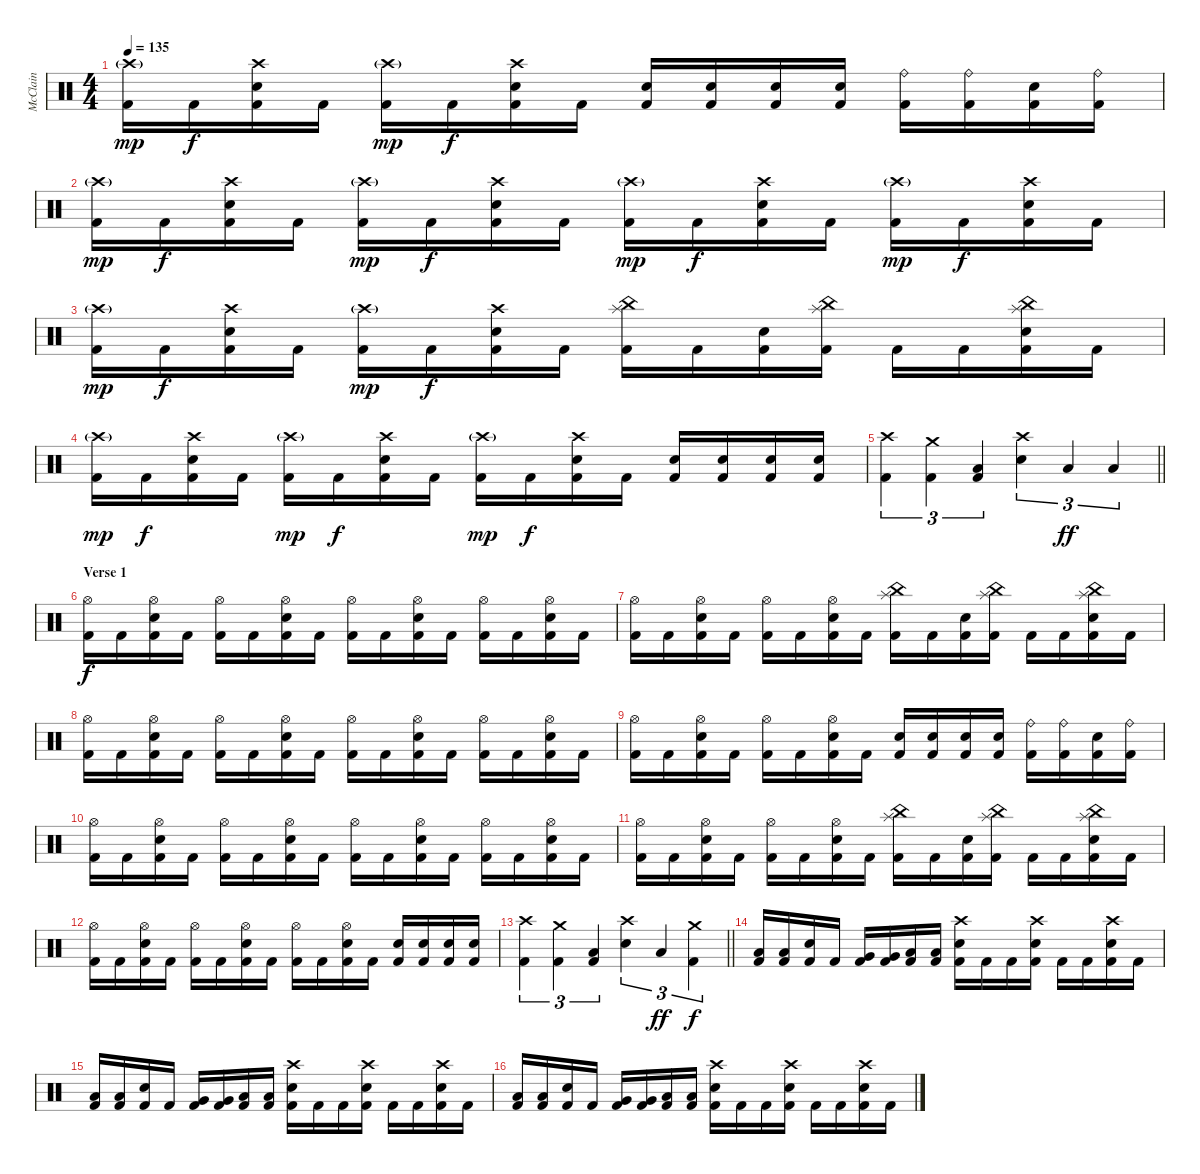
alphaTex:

\track ("McClain" "McClain") {instrument percussion}
\staff {score}
\articulation defaults
\ts (4 4)
\tempo 135
\clef neutral
\ks c
("Crash high (hit)"{g} "Kick (hit) 2").16{dy mp} "Kick (hit) 2".16{dy f} ("Crash high (hit)" "Electric Snare (hit)" "Kick (hit) 2").16 "Kick (hit) 2".16 ("Crash high (hit)"{g} "Kick (hit) 2").16{dy mp} "Kick (hit) 2".16{dy f} ("Crash high (hit)" "Electric Snare (hit)" "Kick (hit) 2").16 "Kick (hit) 2".16 ("Electric Snare (hit)" "Kick (hit) 2").16 ("Electric Snare (hit)" "Kick (hit) 2").16 ("Electric Snare (hit)" "Kick (hit) 2").16 ("Electric Snare (hit)" "Kick (hit) 2").16 ("Ride (bell)" "Kick (hit) 2").16 ("Ride (bell)" "Kick (hit) 2").16 ("Electric Snare (hit)" "Kick (hit) 2").16 ("Ride (bell)" "Kick (hit) 2").16 |
("Crash high (hit)"{g} "Kick (hit) 2").16{dy mp} "Kick (hit) 2".16{dy f} ("Crash high (hit)" "Electric Snare (hit)" "Kick (hit) 2").16 "Kick (hit) 2".16 ("Crash high (hit)"{g} "Kick (hit) 2").16{dy mp} "Kick (hit) 2".16{dy f} ("Crash high (hit)" "Electric Snare (hit)" "Kick (hit) 2").16 "Kick (hit) 2".16 ("Crash high (hit)"{g} "Kick (hit) 2").16{dy mp} "Kick (hit) 2".16{dy f} ("Crash high (hit)" "Electric Snare (hit)" "Kick (hit) 2").16 "Kick (hit) 2".16 ("Crash high (hit)"{g} "Kick (hit) 2").16{dy mp} "Kick (hit) 2".16{dy f} ("Crash high (hit)" "Electric Snare (hit)" "Kick (hit) 2").16 "Kick (hit) 2".16 |
("Crash high (hit)"{g} "Kick (hit) 2").16{dy mp} "Kick (hit) 2".16{dy f} ("Crash high (hit)" "Electric Snare (hit)" "Kick (hit) 2").16 "Kick (hit) 2".16 ("Crash high (hit)"{g} "Kick (hit) 2").16{dy mp} "Kick (hit) 2".16{dy f} ("Crash high (hit)" "Electric Snare (hit)" "Kick (hit) 2").16 "Kick (hit) 2".16 ("China (hit)" "Splash (hit)" "Kick (hit) 2").16 "Kick (hit) 2".16 ("Electric Snare (hit)" "Kick (hit) 2").16 ("China (hit)" "Splash (hit)" "Kick (hit) 2").16 "Kick (hit) 2".16 "Kick (hit) 2".16 ("China (hit)" "Splash (hit)" "Electric Snare (hit)" "Kick (hit) 2").16 "Kick (hit) 2".16 |
("Crash high (hit)"{g} "Kick (hit) 2").16{dy mp} "Kick (hit) 2".16{dy f} ("Crash high (hit)" "Electric Snare (hit)" "Kick (hit) 2").16 "Kick (hit) 2".16 ("Crash high (hit)"{g} "Kick (hit) 2").16{dy mp} "Kick (hit) 2".16{dy f} ("Crash high (hit)" "Electric Snare (hit)" "Kick (hit) 2").16 "Kick (hit) 2".16 ("Crash high (hit)"{g} "Kick (hit) 2").16{dy mp} "Kick (hit) 2".16{dy f} ("Crash high (hit)" "Electric Snare (hit)" "Kick (hit) 2").16 "Kick (hit) 2".16 ("Electric Snare (hit)" "Kick (hit) 2").16 ("Electric Snare (hit)" "Kick (hit) 2").16 ("Electric Snare (hit)" "Kick (hit) 2").16 ("Electric Snare (hit)" "Kick (hit) 2").16 |
\barLineRight lightlight
("Crash high (hit)" "Kick (hit) 2").4{tu (3 2)} ("Crash medium (hit)" "Kick (hit) 2").4{tu (3 2)} ("Low Floor Tom (hit)" "Kick (hit) 2").4{tu (3 2)} ("Crash high (hit)" "Electric Snare (hit)").4{tu (3 2)} "Low Tom (hit)".4{tu (3 2) dy ff} "Low Floor Tom (hit)".4{tu (3 2)} |
\section ("" "Verse 1 ")
("Hi-Hat (open)" "Kick (hit) 2").16{dy f} "Kick (hit) 2".16 ("Hi-Hat (open)" "Electric Snare (hit)" "Kick (hit) 2").16 "Kick (hit) 2".16 ("Hi-Hat (open)" "Kick (hit) 2").16 "Kick (hit) 2".16 ("Hi-Hat (open)" "Electric Snare (hit)" "Kick (hit) 2").16 "Kick (hit) 2".16 ("Hi-Hat (open)" "Kick (hit) 2").16 "Kick (hit) 2".16 ("Hi-Hat (open)" "Electric Snare (hit)" "Kick (hit) 2").16 "Kick (hit) 2".16 ("Hi-Hat (open)" "Kick (hit) 2").16 "Kick (hit) 2".16 ("Hi-Hat (open)" "Electric Snare (hit)" "Kick (hit) 2").16 "Kick (hit) 2".16 |
("Hi-Hat (open)" "Kick (hit) 2").16 "Kick (hit) 2".16 ("Hi-Hat (open)" "Electric Snare (hit)" "Kick (hit) 2").16 "Kick (hit) 2".16 ("Hi-Hat (open)" "Kick (hit) 2").16 "Kick (hit) 2".16 ("Hi-Hat (open)" "Electric Snare (hit)" "Kick (hit) 2").16 "Kick (hit) 2".16 ("China (hit)" "Splash (hit)" "Kick (hit) 2").16 "Kick (hit) 2".16 ("Electric Snare (hit)" "Kick (hit) 2").16 ("China (hit)" "Splash (hit)" "Kick (hit) 2").16 "Kick (hit) 2".16 "Kick (hit) 2".16 ("China (hit)" "Splash (hit)" "Electric Snare (hit)" "Kick (hit) 2").16 "Kick (hit) 2".16 |
("Hi-Hat (open)" "Kick (hit) 2").16 "Kick (hit) 2".16 ("Hi-Hat (open)" "Electric Snare (hit)" "Kick (hit) 2").16 "Kick (hit) 2".16 ("Hi-Hat (open)" "Kick (hit) 2").16 "Kick (hit) 2".16 ("Hi-Hat (open)" "Electric Snare (hit)" "Kick (hit) 2").16 "Kick (hit) 2".16 ("Hi-Hat (open)" "Kick (hit) 2").16 "Kick (hit) 2".16 ("Hi-Hat (open)" "Electric Snare (hit)" "Kick (hit) 2").16 "Kick (hit) 2".16 ("Hi-Hat (open)" "Kick (hit) 2").16 "Kick (hit) 2".16 ("Hi-Hat (open)" "Electric Snare (hit)" "Kick (hit) 2").16 "Kick (hit) 2".16 |
("Hi-Hat (open)" "Kick (hit) 2").16 "Kick (hit) 2".16 ("Hi-Hat (open)" "Electric Snare (hit)" "Kick (hit) 2").16 "Kick (hit) 2".16 ("Hi-Hat (open)" "Kick (hit) 2").16 "Kick (hit) 2".16 ("Hi-Hat (open)" "Electric Snare (hit)" "Kick (hit) 2").16 "Kick (hit) 2".16 ("Electric Snare (hit)" "Kick (hit) 2").16 ("Electric Snare (hit)" "Kick (hit) 2").16 ("Electric Snare (hit)" "Kick (hit) 2").16 ("Electric Snare (hit)" "Kick (hit) 2").16 ("Ride (bell)" "Kick (hit) 2").16 ("Ride (bell)" "Kick (hit) 2").16 ("Electric Snare (hit)" "Kick (hit) 2").16 ("Ride (bell)" "Kick (hit) 2").16 |
("Hi-Hat (open)" "Kick (hit) 2").16 "Kick (hit) 2".16 ("Hi-Hat (open)" "Electric Snare (hit)" "Kick (hit) 2").16 "Kick (hit) 2".16 ("Hi-Hat (open)" "Kick (hit) 2").16 "Kick (hit) 2".16 ("Hi-Hat (open)" "Electric Snare (hit)" "Kick (hit) 2").16 "Kick (hit) 2".16 ("Hi-Hat (open)" "Kick (hit) 2").16 "Kick (hit) 2".16 ("Hi-Hat (open)" "Electric Snare (hit)" "Kick (hit) 2").16 "Kick (hit) 2".16 ("Hi-Hat (open)" "Kick (hit) 2").16 "Kick (hit) 2".16 ("Hi-Hat (open)" "Electric Snare (hit)" "Kick (hit) 2").16 "Kick (hit) 2".16 |
("Hi-Hat (open)" "Kick (hit) 2").16 "Kick (hit) 2".16 ("Hi-Hat (open)" "Electric Snare (hit)" "Kick (hit) 2").16 "Kick (hit) 2".16 ("Hi-Hat (open)" "Kick (hit) 2").16 "Kick (hit) 2".16 ("Hi-Hat (open)" "Electric Snare (hit)" "Kick (hit) 2").16 "Kick (hit) 2".16 ("China (hit)" "Splash (hit)" "Kick (hit) 2").16 "Kick (hit) 2".16 ("Electric Snare (hit)" "Kick (hit) 2").16 ("China (hit)" "Splash (hit)" "Kick (hit) 2").16 "Kick (hit) 2".16 "Kick (hit) 2".16 ("China (hit)" "Splash (hit)" "Electric Snare (hit)" "Kick (hit) 2").16 "Kick (hit) 2".16 |
("Hi-Hat (open)" "Kick (hit) 2").16 "Kick (hit) 2".16 ("Hi-Hat (open)" "Electric Snare (hit)" "Kick (hit) 2").16 "Kick (hit) 2".16 ("Hi-Hat (open)" "Kick (hit) 2").16 "Kick (hit) 2".16 ("Hi-Hat (open)" "Electric Snare (hit)" "Kick (hit) 2").16 "Kick (hit) 2".16 ("Hi-Hat (open)" "Kick (hit) 2").16 "Kick (hit) 2".16 ("Hi-Hat (open)" "Electric Snare (hit)" "Kick (hit) 2").16 "Kick (hit) 2".16 ("Electric Snare (hit)" "Kick (hit) 2").16 ("Electric Snare (hit)" "Kick (hit) 2").16 ("Electric Snare (hit)" "Kick (hit) 2").16 ("Electric Snare (hit)" "Kick (hit) 2").16 |
\barLineRight lightlight
("Crash high (hit)" "Kick (hit) 2").4{tu (3 2)} ("Crash medium (hit)" "Kick (hit) 2").4{tu (3 2)} ("Low Floor Tom (hit)" "Kick (hit) 2").4{tu (3 2)} ("Crash high (hit)" "Electric Snare (hit)").4{tu (3 2)} "Low Tom (hit)".4{tu (3 2) dy ff} ("Crash medium (hit)" "Kick (hit) 2").4{tu (3 2) dy f} |
("Low Tom (hit)" "Kick (hit) 2").16 ("Low Tom (hit)" "Kick (hit) 2").16 ("Electric Snare (hit)" "Kick (hit) 2").16 "Kick (hit) 2".16 ("Very Low Tom (hit)" "Kick (hit) 2").16 ("Very Low Tom (hit)" "Kick (hit) 2").16 ("Low Floor Tom (hit)" "Kick (hit) 2").16 ("Low Floor Tom (hit)" "Kick (hit) 2").16 ("Crash high (hit)" "Electric Snare (hit)" "Kick (hit) 2").16 "Kick (hit) 2".16 "Kick (hit) 2".16 ("Crash high (hit)" "Electric Snare (hit)" "Kick (hit) 2").16 "Kick (hit) 2".16 "Kick (hit) 2".16 ("Crash high (hit)" "Electric Snare (hit)" "Kick (hit) 2").16 "Kick (hit) 2".16 |
("Low Tom (hit)" "Kick (hit) 2").16 ("Low Tom (hit)" "Kick (hit) 2").16 ("Electric Snare (hit)" "Kick (hit) 2").16 "Kick (hit) 2".16 ("Very Low Tom (hit)" "Kick (hit) 2").16 ("Very Low Tom (hit)" "Kick (hit) 2").16 ("Low Floor Tom (hit)" "Kick (hit) 2").16 ("Low Floor Tom (hit)" "Kick (hit) 2").16 ("Crash high (hit)" "Electric Snare (hit)" "Kick (hit) 2").16 "Kick (hit) 2".16 "Kick (hit) 2".16 ("Crash high (hit)" "Electric Snare (hit)" "Kick (hit) 2").16 "Kick (hit) 2".16 "Kick (hit) 2".16 ("Crash high (hit)" "Electric Snare (hit)" "Kick (hit) 2").16 "Kick (hit) 2".16 |
("Low Tom (hit)" "Kick (hit) 2").16 ("Low Tom (hit)" "Kick (hit) 2").16 ("Electric Snare (hit)" "Kick (hit) 2").16 "Kick (hit) 2".16 ("Very Low Tom (hit)" "Kick (hit) 2").16 ("Very Low Tom (hit)" "Kick (hit) 2").16 ("Low Floor Tom (hit)" "Kick (hit) 2").16 ("Low Floor Tom (hit)" "Kick (hit) 2").16 ("Crash high (hit)" "Electric Snare (hit)" "Kick (hit) 2").16 "Kick (hit) 2".16 "Kick (hit) 2".16 ("Crash high (hit)" "Electric Snare (hit)" "Kick (hit) 2").16 "Kick (hit) 2".16 "Kick (hit) 2".16 ("Crash high (hit)" "Electric Snare (hit)" "Kick (hit) 2").16 "Kick (hit) 2".16
